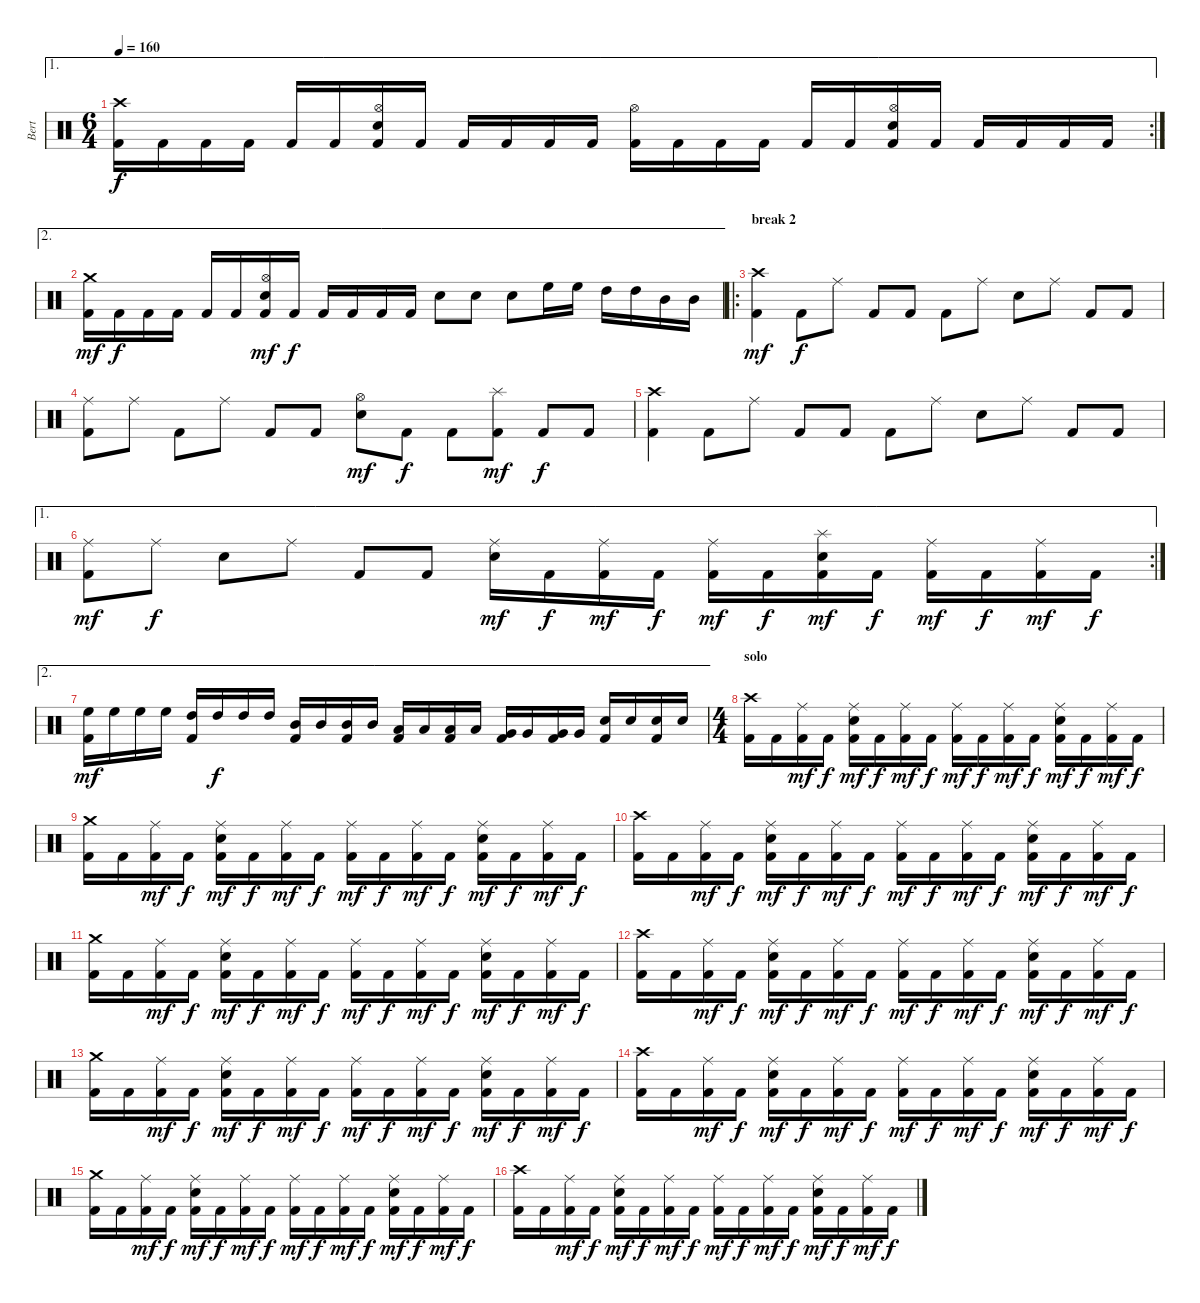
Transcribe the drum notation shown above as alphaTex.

\track ("Bert" "Bert") {instrument percussion}
\staff {score}
\articulation defaults
\ae 1
\rc 2
\ts (6 4)
\tempo 160
\clef neutral
\ks c
("Crash high (hit)" "Kick (hit) 2").16{dy f} "Kick (hit) 2".16 "Kick (hit) 2".16 "Kick (hit) 2".16 "Kick (hit) 2".16 "Kick (hit) 2".16 ("Hi-Hat (open)" "Snare (hit) 2" "Kick (hit) 2").16 "Kick (hit) 2".16 "Kick (hit) 2".16 "Kick (hit) 2".16 "Kick (hit) 2".16 "Kick (hit) 2".16 ("Hi-Hat (open)" "Kick (hit) 2").16 "Kick (hit) 2".16 "Kick (hit) 2".16 "Kick (hit) 2".16 "Kick (hit) 2".16 "Kick (hit) 2".16 ("Hi-Hat (open)" "Snare (hit) 2" "Kick (hit) 2").16 "Kick (hit) 2".16 "Kick (hit) 2".16 "Kick (hit) 2".16 "Kick (hit) 2".16 "Kick (hit) 2".16 |
\ae 2
("Crash medium (hit)" "Kick (hit) 2").16{dy mf} "Kick (hit) 2".16{dy f} "Kick (hit) 2".16 "Kick (hit) 2".16 "Kick (hit) 2".16 "Kick (hit) 2".16 ("Hi-Hat (open)" "Snare (hit) 2" "Kick (hit) 2").16{dy mf} "Kick (hit) 2".16{dy f} "Kick (hit) 2".16 "Kick (hit) 2".16 "Kick (hit) 2".16 "Kick (hit) 2".16 "Snare (hit) 2".8 "Snare (hit) 2".8 "Snare (hit) 2".8 "High Floor Tom (hit)".16 "High Floor Tom (hit)".16 "High Tom (hit)".16 "High Tom (hit)".16 "Mid Tom (hit)".16 "Mid Tom (hit)".16 |
\ro
\section ("" "break 2")
("Crash high (hit)" "Kick (hit) 2").4{dy mf} "Kick (hit) 2".8{dy f} "Ride (middle)".8 "Kick (hit) 2".8 "Kick (hit) 2".8 "Kick (hit) 2".8 "Ride (middle)".8 "Snare (hit) 2".8 "Ride (middle)".8 "Kick (hit) 2".8 "Kick (hit) 2".8 |
("Ride (middle)" "Kick (hit) 2").8 "Ride (middle)".8 "Kick (hit) 2".8 "Ride (middle)".8 "Kick (hit) 2".8 "Kick (hit) 2".8 ("Hi-Hat (open)" "Snare (hit) 2").8{dy mf} "Kick (hit) 2".8{dy f} "Kick (hit) 2".8 ("Splash (hit)" "Kick (hit) 2").8{dy mf} "Kick (hit) 2".8{dy f} "Kick (hit) 2".8 |
("Crash high (hit)" "Kick (hit) 2").4 "Kick (hit) 2".8 "Ride (middle)".8 "Kick (hit) 2".8 "Kick (hit) 2".8 "Kick (hit) 2".8 "Ride (middle)".8 "Snare (hit) 2".8 "Ride (middle)".8 "Kick (hit) 2".8 "Kick (hit) 2".8 |
\ae 1
\rc 2
("Ride (middle)" "Kick (hit) 2").8{dy mf} "Ride (middle)".8{dy f} "Snare (hit) 2".8 "Ride (middle)".8 "Kick (hit) 2".8 "Kick (hit) 2".8 ("Ride (middle)" "Snare (hit) 2").16{dy mf} "Kick (hit) 2".16{dy f} ("Ride (middle)" "Kick (hit) 2").16{dy mf} "Kick (hit) 2".16{dy f} ("Ride (middle)" "Kick (hit) 2").16{dy mf} "Kick (hit) 2".16{dy f} ("Splash (hit)" "Snare (hit) 2" "Kick (hit) 2").16{dy mf} "Kick (hit) 2".16{dy f} ("Ride (middle)" "Kick (hit) 2").16{dy mf} "Kick (hit) 2".16{dy f} ("Ride (middle)" "Kick (hit) 2").16{dy mf} "Kick (hit) 2".16{dy f} |
\ae 2
("High Floor Tom (hit)" "Kick (hit) 2").16{dy mf} "High Floor Tom (hit)".16 "High Floor Tom (hit)".16 "High Floor Tom (hit)".16 ("High Tom (hit)" "Kick (hit) 2").16 "High Tom (hit)".16{dy f} "High Tom (hit)".16 "High Tom (hit)".16 ("Mid Tom (hit)" "Kick (hit) 2").16 "Mid Tom (hit)".16 ("Mid Tom (hit)" "Kick (hit) 2").16 "Mid Tom (hit)".16 ("Low Tom (hit)" "Kick (hit) 2").16 "Low Tom (hit)".16 ("Low Tom (hit)" "Kick (hit) 2").16 "Low Tom (hit)".16 ("Very Low Tom (hit)" "Kick (hit) 2").16 "Very Low Tom (hit)".16 ("Very Low Tom (hit)" "Kick (hit) 2").16 "Very Low Tom (hit)".16 ("Snare (hit) 2" "Kick (hit) 2").16 "Snare (hit) 2".16 ("Snare (hit) 2" "Kick (hit) 2").16 "Snare (hit) 2".16 |
\ts (4 4)
\section ("" "solo")
("Crash high (hit)" "Kick (hit) 2").16 "Kick (hit) 2".16 ("Ride (middle)" "Kick (hit) 2").16{dy mf} "Kick (hit) 2".16{dy f} ("Ride (middle)" "Snare (hit) 2" "Kick (hit) 2").16{dy mf} "Kick (hit) 2".16{dy f} ("Ride (middle)" "Kick (hit) 2").16{dy mf} "Kick (hit) 2".16{dy f} ("Ride (middle)" "Kick (hit) 2").16{dy mf} "Kick (hit) 2".16{dy f} ("Ride (middle)" "Kick (hit) 2").16{dy mf} "Kick (hit) 2".16{dy f} ("Ride (middle)" "Snare (hit) 2" "Kick (hit) 2").16{dy mf} "Kick (hit) 2".16{dy f} ("Ride (middle)" "Kick (hit) 2").16{dy mf} "Kick (hit) 2".16{dy f} |
("Crash medium (hit)" "Kick (hit) 2").16 "Kick (hit) 2".16 ("Ride (middle)" "Kick (hit) 2").16{dy mf} "Kick (hit) 2".16{dy f} ("Ride (middle)" "Snare (hit) 2" "Kick (hit) 2").16{dy mf} "Kick (hit) 2".16{dy f} ("Ride (middle)" "Kick (hit) 2").16{dy mf} "Kick (hit) 2".16{dy f} ("Ride (middle)" "Kick (hit) 2").16{dy mf} "Kick (hit) 2".16{dy f} ("Ride (middle)" "Kick (hit) 2").16{dy mf} "Kick (hit) 2".16{dy f} ("Ride (middle)" "Snare (hit) 2" "Kick (hit) 2").16{dy mf} "Kick (hit) 2".16{dy f} ("Ride (middle)" "Kick (hit) 2").16{dy mf} "Kick (hit) 2".16{dy f} |
("Crash high (hit)" "Kick (hit) 2").16 "Kick (hit) 2".16 ("Ride (middle)" "Kick (hit) 2").16{dy mf} "Kick (hit) 2".16{dy f} ("Ride (middle)" "Snare (hit) 2" "Kick (hit) 2").16{dy mf} "Kick (hit) 2".16{dy f} ("Ride (middle)" "Kick (hit) 2").16{dy mf} "Kick (hit) 2".16{dy f} ("Ride (middle)" "Kick (hit) 2").16{dy mf} "Kick (hit) 2".16{dy f} ("Ride (middle)" "Kick (hit) 2").16{dy mf} "Kick (hit) 2".16{dy f} ("Ride (middle)" "Snare (hit) 2" "Kick (hit) 2").16{dy mf} "Kick (hit) 2".16{dy f} ("Ride (middle)" "Kick (hit) 2").16{dy mf} "Kick (hit) 2".16{dy f} |
("Crash medium (hit)" "Kick (hit) 2").16 "Kick (hit) 2".16 ("Ride (middle)" "Kick (hit) 2").16{dy mf} "Kick (hit) 2".16{dy f} ("Ride (middle)" "Snare (hit) 2" "Kick (hit) 2").16{dy mf} "Kick (hit) 2".16{dy f} ("Ride (middle)" "Kick (hit) 2").16{dy mf} "Kick (hit) 2".16{dy f} ("Ride (middle)" "Kick (hit) 2").16{dy mf} "Kick (hit) 2".16{dy f} ("Ride (middle)" "Kick (hit) 2").16{dy mf} "Kick (hit) 2".16{dy f} ("Ride (middle)" "Snare (hit) 2" "Kick (hit) 2").16{dy mf} "Kick (hit) 2".16{dy f} ("Ride (middle)" "Kick (hit) 2").16{dy mf} "Kick (hit) 2".16{dy f} |
("Crash high (hit)" "Kick (hit) 2").16 "Kick (hit) 2".16 ("Ride (middle)" "Kick (hit) 2").16{dy mf} "Kick (hit) 2".16{dy f} ("Ride (middle)" "Snare (hit) 2" "Kick (hit) 2").16{dy mf} "Kick (hit) 2".16{dy f} ("Ride (middle)" "Kick (hit) 2").16{dy mf} "Kick (hit) 2".16{dy f} ("Ride (middle)" "Kick (hit) 2").16{dy mf} "Kick (hit) 2".16{dy f} ("Ride (middle)" "Kick (hit) 2").16{dy mf} "Kick (hit) 2".16{dy f} ("Ride (middle)" "Snare (hit) 2" "Kick (hit) 2").16{dy mf} "Kick (hit) 2".16{dy f} ("Ride (middle)" "Kick (hit) 2").16{dy mf} "Kick (hit) 2".16{dy f} |
("Crash medium (hit)" "Kick (hit) 2").16 "Kick (hit) 2".16 ("Ride (middle)" "Kick (hit) 2").16{dy mf} "Kick (hit) 2".16{dy f} ("Ride (middle)" "Snare (hit) 2" "Kick (hit) 2").16{dy mf} "Kick (hit) 2".16{dy f} ("Ride (middle)" "Kick (hit) 2").16{dy mf} "Kick (hit) 2".16{dy f} ("Ride (middle)" "Kick (hit) 2").16{dy mf} "Kick (hit) 2".16{dy f} ("Ride (middle)" "Kick (hit) 2").16{dy mf} "Kick (hit) 2".16{dy f} ("Ride (middle)" "Snare (hit) 2" "Kick (hit) 2").16{dy mf} "Kick (hit) 2".16{dy f} ("Ride (middle)" "Kick (hit) 2").16{dy mf} "Kick (hit) 2".16{dy f} |
("Crash high (hit)" "Kick (hit) 2").16 "Kick (hit) 2".16 ("Ride (middle)" "Kick (hit) 2").16{dy mf} "Kick (hit) 2".16{dy f} ("Ride (middle)" "Snare (hit) 2" "Kick (hit) 2").16{dy mf} "Kick (hit) 2".16{dy f} ("Ride (middle)" "Kick (hit) 2").16{dy mf} "Kick (hit) 2".16{dy f} ("Ride (middle)" "Kick (hit) 2").16{dy mf} "Kick (hit) 2".16{dy f} ("Ride (middle)" "Kick (hit) 2").16{dy mf} "Kick (hit) 2".16{dy f} ("Ride (middle)" "Snare (hit) 2" "Kick (hit) 2").16{dy mf} "Kick (hit) 2".16{dy f} ("Ride (middle)" "Kick (hit) 2").16{dy mf} "Kick (hit) 2".16{dy f} |
("Crash medium (hit)" "Kick (hit) 2").16 "Kick (hit) 2".16 ("Ride (middle)" "Kick (hit) 2").16{dy mf} "Kick (hit) 2".16{dy f} ("Ride (middle)" "Snare (hit) 2" "Kick (hit) 2").16{dy mf} "Kick (hit) 2".16{dy f} ("Ride (middle)" "Kick (hit) 2").16{dy mf} "Kick (hit) 2".16{dy f} ("Ride (middle)" "Kick (hit) 2").16{dy mf} "Kick (hit) 2".16{dy f} ("Ride (middle)" "Kick (hit) 2").16{dy mf} "Kick (hit) 2".16{dy f} ("Ride (middle)" "Snare (hit) 2" "Kick (hit) 2").16{dy mf} "Kick (hit) 2".16{dy f} ("Ride (middle)" "Kick (hit) 2").16{dy mf} "Kick (hit) 2".16{dy f} |
("Crash high (hit)" "Kick (hit) 2").16 "Kick (hit) 2".16 ("Ride (middle)" "Kick (hit) 2").16{dy mf} "Kick (hit) 2".16{dy f} ("Ride (middle)" "Snare (hit) 2" "Kick (hit) 2").16{dy mf} "Kick (hit) 2".16{dy f} ("Ride (middle)" "Kick (hit) 2").16{dy mf} "Kick (hit) 2".16{dy f} ("Ride (middle)" "Kick (hit) 2").16{dy mf} "Kick (hit) 2".16{dy f} ("Ride (middle)" "Kick (hit) 2").16{dy mf} "Kick (hit) 2".16{dy f} ("Ride (middle)" "Snare (hit) 2" "Kick (hit) 2").16{dy mf} "Kick (hit) 2".16{dy f} ("Ride (middle)" "Kick (hit) 2").16{dy mf} "Kick (hit) 2".16{dy f}
